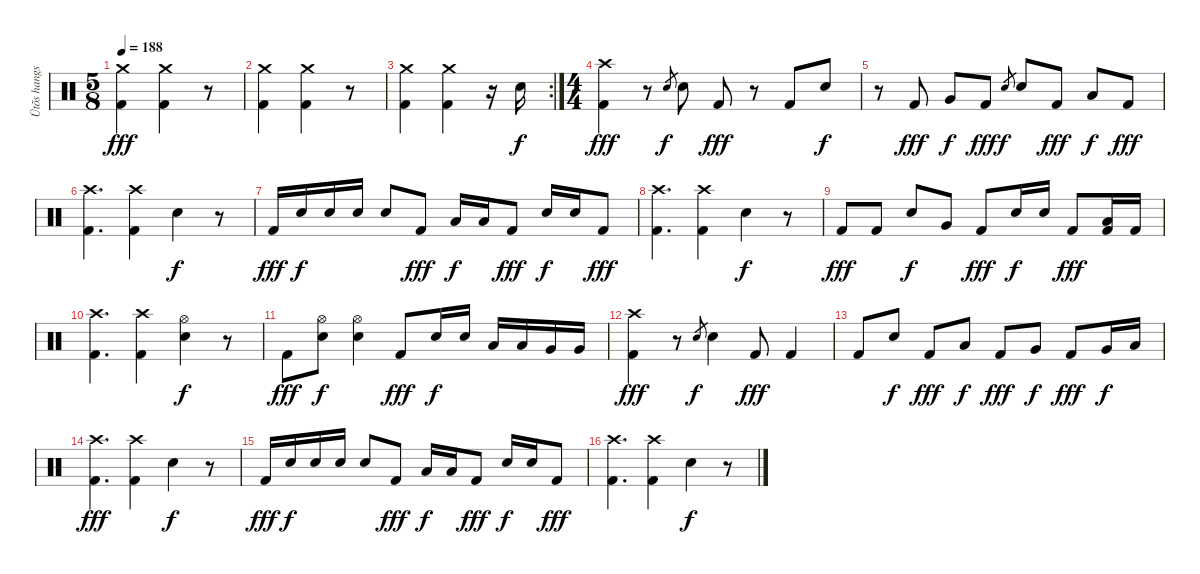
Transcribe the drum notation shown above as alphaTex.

\track ("Ütõs hangszer" "Ütõs hangs") {instrument percussion}
\staff {score}
\articulation defaults
\ts (5 8)
\tempo 188
\clef neutral
\ks c
("Crash medium (hit)" "Kick (hit) 2").4{dy fff} ("Crash medium (hit)" "Kick (hit) 2").4 r.8 |
("Crash medium (hit)" "Kick (hit) 2").4 ("Crash medium (hit)" "Kick (hit) 2").4 r.8 |
\rc 2
("Crash medium (hit)" "Kick (hit) 2").4 ("Crash medium (hit)" "Kick (hit) 2").4 r.16 "Electric Snare (hit)".16{dy f} |
\ts (4 4)
("Crash high (hit)" "Kick (hit) 2").4{dy fff} r.8 "Electric Snare (hit)".8{gr dy f} "Electric Snare (hit)".8 "Kick (hit) 2".8{dy fff} r.8 "Kick (hit) 2".8 "Electric Snare (hit)".8{dy f} |
r.8 "Kick (hit) 2".8{dy fff} "Very Low Tom (hit)".8{dy f} "Kick (hit) 2".8{dy fff} "Electric Snare (hit)".8{gr dy f} "Electric Snare (hit)".8 "Kick (hit) 2".8{dy fff} "Low Tom (hit)".8{dy f} "Kick (hit) 2".8{dy fff} |
("Crash high (hit)" "Kick (hit) 2").4{d} ("Crash high (hit)" "Kick (hit) 2").4 "Electric Snare (hit)".4{dy f} r.8 |
"Kick (hit) 2".16{dy fff} "Electric Snare (hit)".16{dy f} "Electric Snare (hit)".16 "Electric Snare (hit)".16 "Electric Snare (hit)".8 "Kick (hit) 2".8{dy fff} "Low Tom (hit)".16{dy f} "Low Tom (hit)".16 "Kick (hit) 2".8{dy fff} "Electric Snare (hit)".16{dy f} "Electric Snare (hit)".16 "Kick (hit) 2".8{dy fff} |
("Crash high (hit)" "Kick (hit) 2").4{d} ("Crash high (hit)" "Kick (hit) 2").4 "Electric Snare (hit)".4{dy f} r.8 |
"Kick (hit) 2".8{dy fff} "Kick (hit) 2".8 "Electric Snare (hit)".8{dy f} "Very Low Tom (hit)".8 "Kick (hit) 2".8{dy fff} "Electric Snare (hit)".16{dy f} "Electric Snare (hit)".16 "Kick (hit) 2".8{dy fff} ("Low Tom (hit)" "Kick (hit) 2").16 "Kick (hit) 2".16 |
("Crash high (hit)" "Kick (hit) 2").4{d} ("Crash high (hit)" "Kick (hit) 2").4 ("Hi-Hat (open)" "Electric Snare (hit)").4{dy f} r.8 |
"Kick (hit) 2".8{dy fff} ("Hi-Hat (open)" "Electric Snare (hit)").8{dy f} ("Hi-Hat (open)" "Electric Snare (hit)").4 "Kick (hit) 2".8{dy fff} "Electric Snare (hit)".16{dy f} "Electric Snare (hit)".16 "Low Tom (hit)".16 "Low Tom (hit)".16 "Very Low Tom (hit)".16 "Very Low Tom (hit)".16 |
("Crash high (hit)" "Kick (hit) 2").4{dy fff} r.8 "Electric Snare (hit)".8{gr dy f} "Electric Snare (hit)".4 "Kick (hit) 2".8{dy fff} "Kick (hit) 2".4 |
"Kick (hit) 2".8 "Electric Snare (hit)".8{dy f} "Kick (hit) 2".8{dy fff} "Low Tom (hit)".8{dy f} "Kick (hit) 2".8{dy fff} "Very Low Tom (hit)".8{dy f} "Kick (hit) 2".8{dy fff} "Very Low Tom (hit)".16{dy f} "Low Floor Tom (hit)".16 |
("Crash high (hit)" "Kick (hit) 2").4{d dy fff} ("Crash high (hit)" "Kick (hit) 2").4 "Electric Snare (hit)".4{dy f} r.8 |
"Kick (hit) 2".16{dy fff} "Electric Snare (hit)".16{dy f} "Electric Snare (hit)".16 "Electric Snare (hit)".16 "Electric Snare (hit)".8 "Kick (hit) 2".8{dy fff} "Low Tom (hit)".16{dy f} "Low Tom (hit)".16 "Kick (hit) 2".8{dy fff} "Electric Snare (hit)".16{dy f} "Electric Snare (hit)".16 "Kick (hit) 2".8{dy fff} |
("Crash high (hit)" "Kick (hit) 2").4{d} ("Crash high (hit)" "Kick (hit) 2").4 "Electric Snare (hit)".4{dy f} r.8
